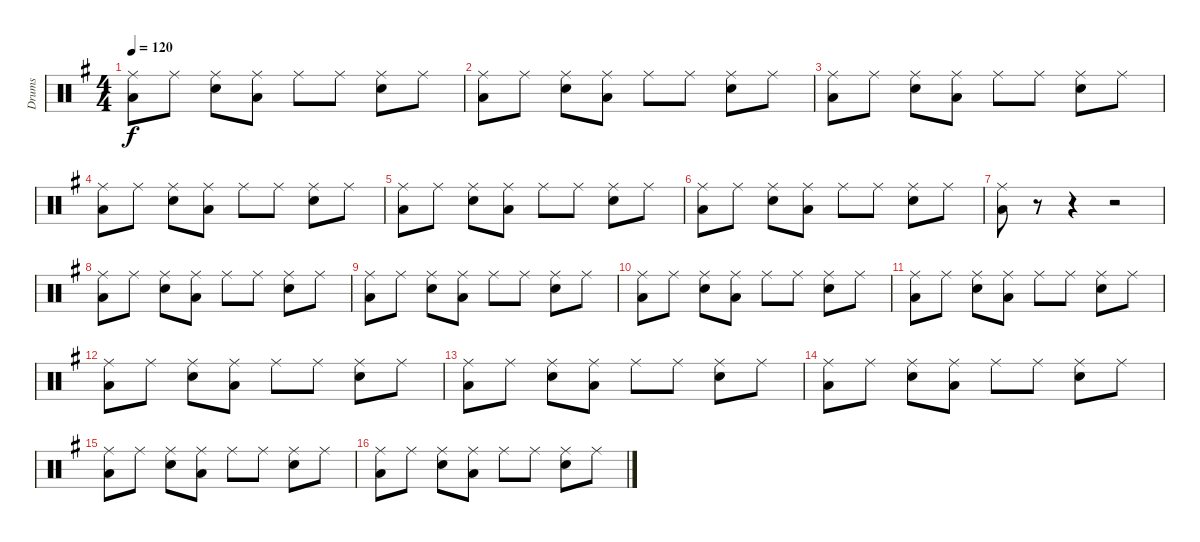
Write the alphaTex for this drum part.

\track ("Drums" "Drums") {instrument percussion}
\staff {score}
\articulation defaults
\ts (4 4)
\tempo 120
\clef neutral
\ks g
("Ride (middle)" "Low Floor Tom (hit)").8{dy f} "Ride (middle)".8 ("Ride (middle)" "Snare (hit) 2").8 ("Ride (middle)" "Low Floor Tom (hit)").8 "Ride (middle)".8 "Ride (middle)".8 ("Ride (middle)" "Snare (hit) 2").8 "Ride (middle)".8 |
("Ride (middle)" "Low Floor Tom (hit)").8 "Ride (middle)".8 ("Ride (middle)" "Snare (hit) 2").8 ("Ride (middle)" "Low Floor Tom (hit)").8 "Ride (middle)".8 "Ride (middle)".8 ("Ride (middle)" "Snare (hit) 2").8 "Ride (middle)".8 |
("Ride (middle)" "Low Floor Tom (hit)").8 "Ride (middle)".8 ("Ride (middle)" "Snare (hit) 2").8 ("Ride (middle)" "Low Floor Tom (hit)").8 "Ride (middle)".8 "Ride (middle)".8 ("Ride (middle)" "Snare (hit) 2").8 "Ride (middle)".8 |
("Ride (middle)" "Low Floor Tom (hit)").8 "Ride (middle)".8 ("Ride (middle)" "Snare (hit) 2").8 ("Ride (middle)" "Low Floor Tom (hit)").8 "Ride (middle)".8 "Ride (middle)".8 ("Ride (middle)" "Snare (hit) 2").8 "Ride (middle)".8 |
("Ride (middle)" "Low Floor Tom (hit)").8 "Ride (middle)".8 ("Ride (middle)" "Snare (hit) 2").8 ("Ride (middle)" "Low Floor Tom (hit)").8 "Ride (middle)".8 "Ride (middle)".8 ("Ride (middle)" "Snare (hit) 2").8 "Ride (middle)".8 |
("Ride (middle)" "Low Floor Tom (hit)").8 "Ride (middle)".8 ("Ride (middle)" "Snare (hit) 2").8 ("Ride (middle)" "Low Floor Tom (hit)").8 "Ride (middle)".8 "Ride (middle)".8 ("Ride (middle)" "Snare (hit) 2").8 "Ride (middle)".8 |
("Ride (middle)" "Low Floor Tom (hit)").8 r.8 r.4 r.2 |
("Ride (middle)" "Low Floor Tom (hit)").8 "Ride (middle)".8 ("Ride (middle)" "Snare (hit) 2").8 ("Ride (middle)" "Low Floor Tom (hit)").8 "Ride (middle)".8 "Ride (middle)".8 ("Ride (middle)" "Snare (hit) 2").8 "Ride (middle)".8 |
("Ride (middle)" "Low Floor Tom (hit)").8 "Ride (middle)".8 ("Ride (middle)" "Snare (hit) 2").8 ("Ride (middle)" "Low Floor Tom (hit)").8 "Ride (middle)".8 "Ride (middle)".8 ("Ride (middle)" "Snare (hit) 2").8 "Ride (middle)".8 |
("Ride (middle)" "Low Floor Tom (hit)").8 "Ride (middle)".8 ("Ride (middle)" "Snare (hit) 2").8 ("Ride (middle)" "Low Floor Tom (hit)").8 "Ride (middle)".8 "Ride (middle)".8 ("Ride (middle)" "Snare (hit) 2").8 "Ride (middle)".8 |
("Ride (middle)" "Low Floor Tom (hit)").8 "Ride (middle)".8 ("Ride (middle)" "Snare (hit) 2").8 ("Ride (middle)" "Low Floor Tom (hit)").8 "Ride (middle)".8 "Ride (middle)".8 ("Ride (middle)" "Snare (hit) 2").8 "Ride (middle)".8 |
("Ride (middle)" "Low Floor Tom (hit)").8 "Ride (middle)".8 ("Ride (middle)" "Snare (hit) 2").8 ("Ride (middle)" "Low Floor Tom (hit)").8 "Ride (middle)".8 "Ride (middle)".8 ("Ride (middle)" "Snare (hit) 2").8 "Ride (middle)".8 |
("Ride (middle)" "Low Floor Tom (hit)").8 "Ride (middle)".8 ("Ride (middle)" "Snare (hit) 2").8 ("Ride (middle)" "Low Floor Tom (hit)").8 "Ride (middle)".8 "Ride (middle)".8 ("Ride (middle)" "Snare (hit) 2").8 "Ride (middle)".8 |
("Ride (middle)" "Low Floor Tom (hit)").8 "Ride (middle)".8 ("Ride (middle)" "Snare (hit) 2").8 ("Ride (middle)" "Low Floor Tom (hit)").8 "Ride (middle)".8 "Ride (middle)".8 ("Ride (middle)" "Snare (hit) 2").8 "Ride (middle)".8 |
("Ride (middle)" "Low Floor Tom (hit)").8 "Ride (middle)".8 ("Ride (middle)" "Snare (hit) 2").8 ("Ride (middle)" "Low Floor Tom (hit)").8 "Ride (middle)".8 "Ride (middle)".8 ("Ride (middle)" "Snare (hit) 2").8 "Ride (middle)".8 |
("Ride (middle)" "Low Floor Tom (hit)").8 "Ride (middle)".8 ("Ride (middle)" "Snare (hit) 2").8 ("Ride (middle)" "Low Floor Tom (hit)").8 "Ride (middle)".8 "Ride (middle)".8 ("Ride (middle)" "Snare (hit) 2").8 "Ride (middle)".8
